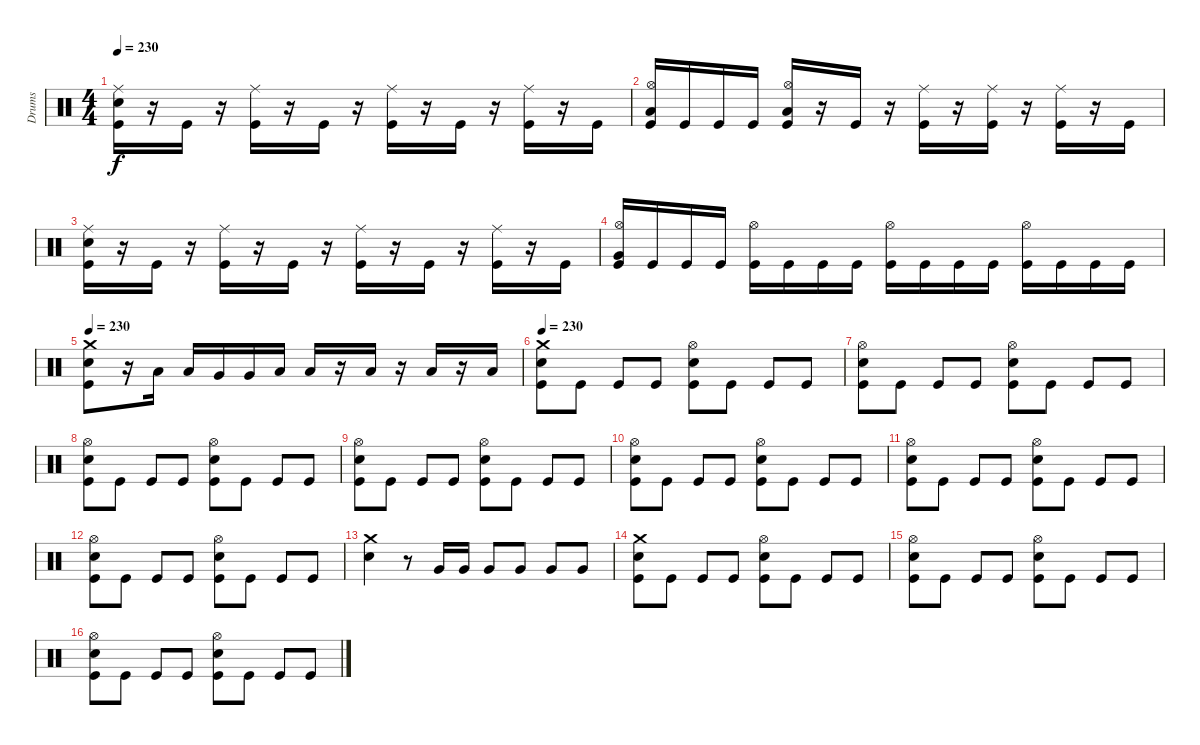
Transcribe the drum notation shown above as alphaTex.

\track ("Drums" "Drums") {instrument percussion}
\staff {score}
\articulation defaults
\ts (4 4)
\tempo 230
\clef neutral
\ks c
("Ride (middle)" "Electric Snare (hit)" "Kick (hit)").16{dy f} r.16 "Kick (hit)".16 r.16 ("Ride (middle)" "Kick (hit)").16 r.16 "Kick (hit)".16 r.16 ("Ride (middle)" "Kick (hit)").16 r.16 "Kick (hit)".16 r.16 ("Ride (middle)" "Kick (hit)").16 r.16 "Kick (hit)".16 |
("Hi-Hat (open)" "Low Floor Tom (hit)" "Kick (hit)").16 "Kick (hit)".16 "Kick (hit)".16 "Kick (hit)".16 ("Hi-Hat (open)" "Low Floor Tom (hit)" "Kick (hit)").16 r.16 "Kick (hit)".16 r.16 ("Ride (middle)" "Kick (hit)").16 r.16 ("Ride (middle)" "Kick (hit)").16 r.16 ("Ride (middle)" "Kick (hit)").16 r.16 "Kick (hit)".16 |
("Ride (middle)" "Electric Snare (hit)" "Kick (hit)").16 r.16 "Kick (hit)".16 r.16 ("Ride (middle)" "Kick (hit)").16 r.16 "Kick (hit)".16 r.16 ("Ride (middle)" "Kick (hit)").16 r.16 "Kick (hit)".16 r.16 ("Ride (middle)" "Kick (hit)").16 r.16 "Kick (hit)".16 |
("Hi-Hat (open)" "Very Low Tom (hit)" "Kick (hit)").16 "Kick (hit)".16 "Kick (hit)".16 "Kick (hit)".16 ("Hi-Hat (open)" "Kick (hit)").16 "Kick (hit)".16 "Kick (hit)".16 "Kick (hit)".16 ("Hi-Hat (open)" "Kick (hit)").16 "Kick (hit)".16 "Kick (hit)".16 "Kick (hit)".16 ("Hi-Hat (open)" "Kick (hit)").16 "Kick (hit)".16 "Kick (hit)".16 "Kick (hit)".16 |
\tempo 230
("Crash medium (hit)" "Electric Snare (hit)" "Kick (hit)").8 r.16 "Low Tom (hit)".16 "Low Tom (hit)".16 "Very Low Tom (hit)".16 "Very Low Tom (hit)".16 "Low Floor Tom (hit)".16 "Low Floor Tom (hit)".16 r.16 "Low Floor Tom (hit)".16 r.16 "Low Floor Tom (hit)".16 r.16 "Low Floor Tom (hit)".16 |
\tempo 230
("Crash medium (hit)" "Electric Snare (hit)" "Kick (hit)").8 "Kick (hit)".8 "Kick (hit)".8 "Kick (hit)".8 ("Hi-Hat (open)" "Electric Snare (hit)" "Kick (hit)").8 "Kick (hit)".8 "Kick (hit)".8 "Kick (hit)".8 |
("Hi-Hat (open)" "Electric Snare (hit)" "Kick (hit)").8 "Kick (hit)".8 "Kick (hit)".8 "Kick (hit)".8 ("Hi-Hat (open)" "Electric Snare (hit)" "Kick (hit)").8 "Kick (hit)".8 "Kick (hit)".8 "Kick (hit)".8 |
("Hi-Hat (open)" "Electric Snare (hit)" "Kick (hit)").8 "Kick (hit)".8 "Kick (hit)".8 "Kick (hit)".8 ("Hi-Hat (open)" "Electric Snare (hit)" "Kick (hit)").8 "Kick (hit)".8 "Kick (hit)".8 "Kick (hit)".8 |
("Hi-Hat (open)" "Electric Snare (hit)" "Kick (hit)").8 "Kick (hit)".8 "Kick (hit)".8 "Kick (hit)".8 ("Hi-Hat (open)" "Electric Snare (hit)" "Kick (hit)").8 "Kick (hit)".8 "Kick (hit)".8 "Kick (hit)".8 |
("Hi-Hat (open)" "Electric Snare (hit)" "Kick (hit)").8 "Kick (hit)".8 "Kick (hit)".8 "Kick (hit)".8 ("Hi-Hat (open)" "Electric Snare (hit)" "Kick (hit)").8 "Kick (hit)".8 "Kick (hit)".8 "Kick (hit)".8 |
("Hi-Hat (open)" "Electric Snare (hit)" "Kick (hit)").8 "Kick (hit)".8 "Kick (hit)".8 "Kick (hit)".8 ("Hi-Hat (open)" "Electric Snare (hit)" "Kick (hit)").8 "Kick (hit)".8 "Kick (hit)".8 "Kick (hit)".8 |
("Hi-Hat (open)" "Electric Snare (hit)" "Kick (hit)").8 "Kick (hit)".8 "Kick (hit)".8 "Kick (hit)".8 ("Hi-Hat (open)" "Electric Snare (hit)" "Kick (hit)").8 "Kick (hit)".8 "Kick (hit)".8 "Kick (hit)".8 |
("Crash medium (hit)" "Electric Snare (hit)").4 r.8 "Very Low Tom (hit)".16 "Very Low Tom (hit)".16 "Very Low Tom (hit)".8 "Very Low Tom (hit)".8 "Very Low Tom (hit)".8 "Very Low Tom (hit)".8 |
("Crash medium (hit)" "Electric Snare (hit)" "Kick (hit)").8 "Kick (hit)".8 "Kick (hit)".8 "Kick (hit)".8 ("Hi-Hat (open)" "Electric Snare (hit)" "Kick (hit)").8 "Kick (hit)".8 "Kick (hit)".8 "Kick (hit)".8 |
("Hi-Hat (open)" "Electric Snare (hit)" "Kick (hit)").8 "Kick (hit)".8 "Kick (hit)".8 "Kick (hit)".8 ("Hi-Hat (open)" "Electric Snare (hit)" "Kick (hit)").8 "Kick (hit)".8 "Kick (hit)".8 "Kick (hit)".8 |
("Hi-Hat (open)" "Electric Snare (hit)" "Kick (hit)").8 "Kick (hit)".8 "Kick (hit)".8 "Kick (hit)".8 ("Hi-Hat (open)" "Electric Snare (hit)" "Kick (hit)").8 "Kick (hit)".8 "Kick (hit)".8 "Kick (hit)".8
